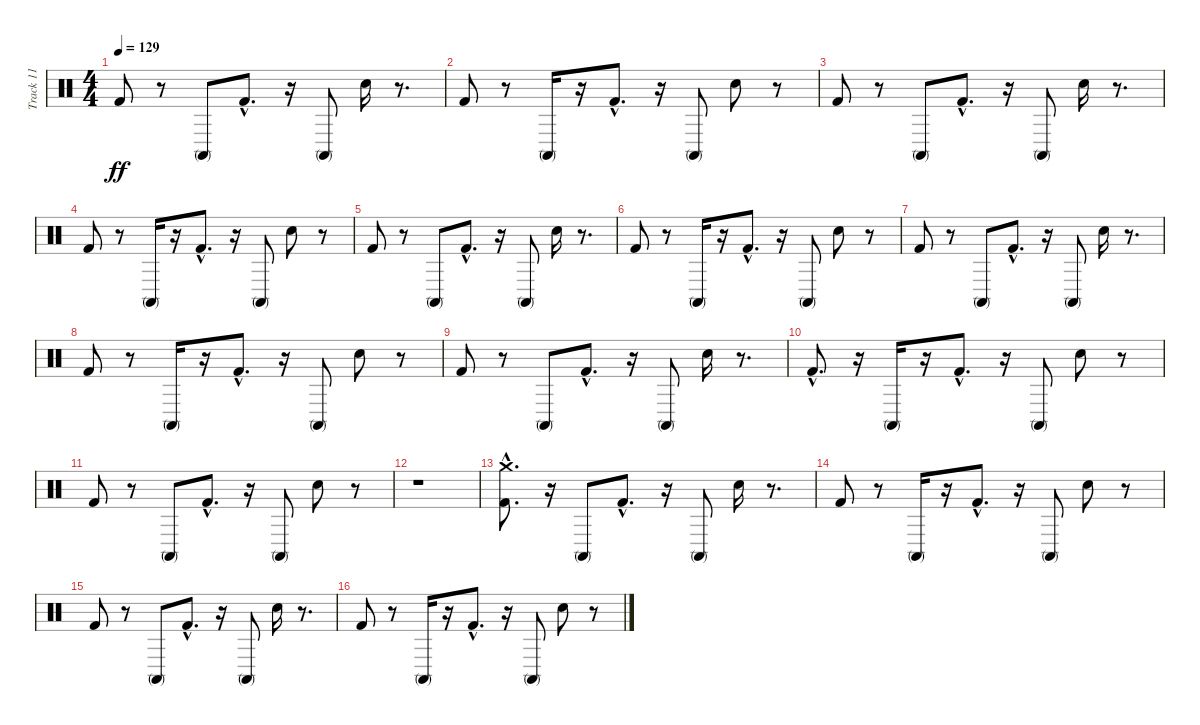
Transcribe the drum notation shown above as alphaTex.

\track ("Track 11" "Track 11") {instrument percussion}
\staff {score}
\articulation defaults
\ts (4 4)
\tempo 129
\clef neutral
\ks c "Kick (hit) 2".8{dy ff}
r.8 "Conga high (mute)".8 "Kick (hit) 2"{hac}.8{d} r.16 "Conga high (mute)".8 "Snare (hit) 2".16 r.8{d} |
"Kick (hit) 2".8 r.8 "Conga high (mute)".16 r.16 "Kick (hit) 2"{hac}.8{d} r.16 "Conga high (mute)".8 "Snare (hit) 2".8 r.8 |
"Kick (hit) 2".8 r.8 "Conga high (mute)".8 "Kick (hit) 2"{hac}.8{d} r.16 "Conga high (mute)".8 "Snare (hit) 2".16 r.8{d} |
"Kick (hit) 2".8 r.8 "Conga high (mute)".16 r.16 "Kick (hit) 2"{hac}.8{d} r.16 "Conga high (mute)".8 "Snare (hit) 2".8 r.8 |
"Kick (hit) 2".8 r.8 "Conga high (mute)".8 "Kick (hit) 2"{hac}.8{d} r.16 "Conga high (mute)".8 "Snare (hit) 2".16 r.8{d} |
"Kick (hit) 2".8 r.8 "Conga high (mute)".16 r.16 "Kick (hit) 2"{hac}.8{d} r.16 "Conga high (mute)".8 "Snare (hit) 2".8 r.8 |
"Kick (hit) 2".8 r.8 "Conga high (mute)".8 "Kick (hit) 2"{hac}.8{d} r.16 "Conga high (mute)".8 "Snare (hit) 2".16 r.8{d} |
"Kick (hit) 2".8 r.8 "Conga high (mute)".16 r.16 "Kick (hit) 2"{hac}.8{d} r.16 "Conga high (mute)".8 "Snare (hit) 2".8 r.8 |
"Kick (hit) 2".8 r.8 "Conga high (mute)".8 "Kick (hit) 2"{hac}.8{d} r.16 "Conga high (mute)".8 "Snare (hit) 2".16 r.8{d} |
"Kick (hit) 2"{hac}.8{d} r.16 "Conga high (mute)".16 r.16 "Kick (hit) 2"{hac}.8{d} r.16 "Conga high (mute)".8 "Snare (hit) 2".8 r.8 |
"Kick (hit) 2".8 r.8 "Conga high (mute)".8 "Kick (hit) 2"{hac}.8{d} r.16 "Conga high (mute)".8 "Snare (hit) 2".8 r.8 |
r.1 |
("Crash medium (hit)"{hac} "Kick (hit) 2").8{d} r.16 "Conga high (mute)".8 "Kick (hit) 2"{hac}.8{d} r.16 "Conga high (mute)".8 "Snare (hit) 2".16 r.8{d} |
"Kick (hit) 2".8 r.8 "Conga high (mute)".16 r.16 "Kick (hit) 2"{hac}.8{d} r.16 "Conga high (mute)".8 "Snare (hit) 2".8 r.8 |
"Kick (hit) 2".8 r.8 "Conga high (mute)".8 "Kick (hit) 2"{hac}.8{d} r.16 "Conga high (mute)".8 "Snare (hit) 2".16 r.8{d} |
"Kick (hit) 2".8 r.8 "Conga high (mute)".16 r.16 "Kick (hit) 2"{hac}.8{d} r.16 "Conga high (mute)".8 "Snare (hit) 2".8 r.8
